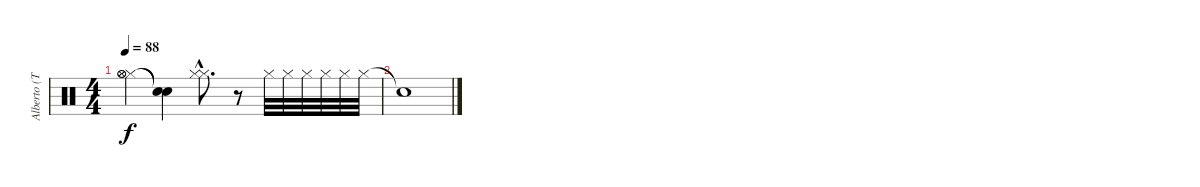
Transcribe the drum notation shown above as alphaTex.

\track ("Alberto (Toshi)" "Alberto (T") {instrument percussion}
\staff {score}
\articulation defaults
\ts (4 4)
\tempo 88
\clef neutral
\ks c
("Hi-Hat (closed)" "Hi-Hat (open)" "Hi-Hat (open)").4{dy f} ("Snare (hit)"{t} "Snare (hit)"{t}).4 ("Hi-Hat (closed)"{hac} "Hi-Hat (closed)"{hac}).8{d} r.8 "Hi-Hat (closed)".32 "Hi-Hat (closed)".32 "Hi-Hat (closed)".32 "Hi-Hat (closed)".32 "Hi-Hat (closed)".32 "Hi-Hat (closed)".32 |
"Snare (hit)"{t}.1
